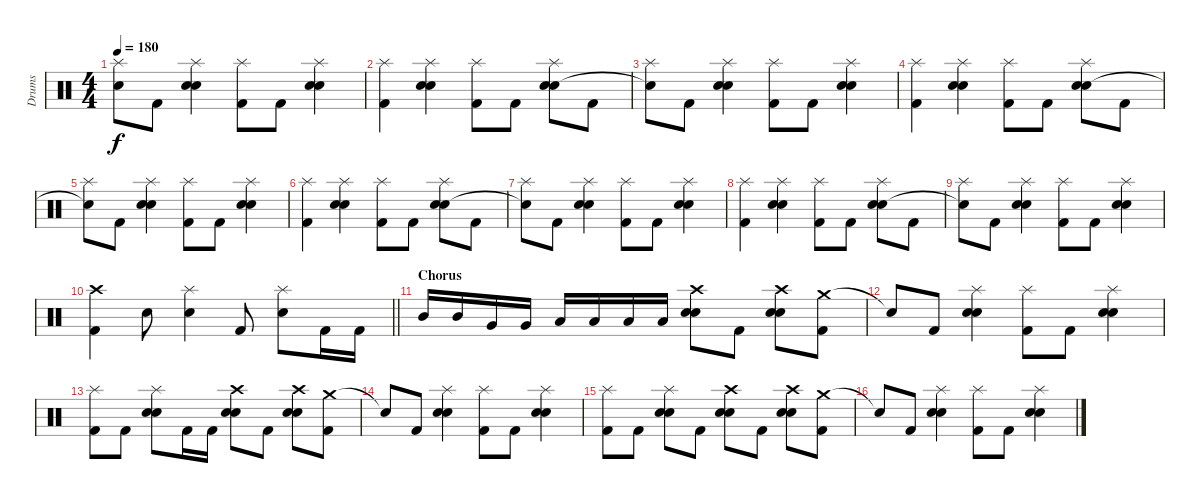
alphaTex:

\track ("Drums" "Drums") {instrument percussion}
\staff {score}
\articulation defaults
\ts (4 4)
\tempo 180
\clef neutral
\ks c
("Splash (hit)" "Snare (hit)"{t}).8{dy f} "Kick (hit) 2".8 ("Splash (hit)" "Electric Snare (hit)" "Snare (hit) 2").4 ("Splash (hit)" "Kick (hit) 2").8 "Kick (hit) 2".8 ("Splash (hit)" "Electric Snare (hit)" "Snare (hit) 2").4 |
("Splash (hit)" "Kick (hit) 2").4 ("Splash (hit)" "Electric Snare (hit)" "Snare (hit) 2").4 ("Splash (hit)" "Kick (hit) 2").8 "Kick (hit) 2".8 ("Splash (hit)" "Electric Snare (hit)" "Snare (hit) 2").8 "Kick (hit) 2".8 |
("Splash (hit)" "Snare (hit)"{t}).8 "Kick (hit) 2".8 ("Splash (hit)" "Electric Snare (hit)" "Snare (hit) 2").4 ("Splash (hit)" "Kick (hit) 2").8 "Kick (hit) 2".8 ("Splash (hit)" "Electric Snare (hit)" "Snare (hit) 2").4 |
("Splash (hit)" "Kick (hit) 2").4 ("Splash (hit)" "Electric Snare (hit)" "Snare (hit) 2").4 ("Splash (hit)" "Kick (hit) 2").8 "Kick (hit) 2".8 ("Splash (hit)" "Electric Snare (hit)" "Snare (hit) 2").8 "Kick (hit) 2".8 |
("Splash (hit)" "Snare (hit)"{t}).8 "Kick (hit) 2".8 ("Splash (hit)" "Electric Snare (hit)" "Snare (hit) 2").4 ("Splash (hit)" "Kick (hit) 2").8 "Kick (hit) 2".8 ("Splash (hit)" "Electric Snare (hit)" "Snare (hit) 2").4 |
("Splash (hit)" "Kick (hit) 2").4 ("Splash (hit)" "Electric Snare (hit)" "Snare (hit) 2").4 ("Splash (hit)" "Kick (hit) 2").8 "Kick (hit) 2".8 ("Splash (hit)" "Electric Snare (hit)" "Snare (hit) 2").8 "Kick (hit) 2".8 |
("Splash (hit)" "Snare (hit)"{t}).8 "Kick (hit) 2".8 ("Splash (hit)" "Electric Snare (hit)" "Snare (hit) 2").4 ("Splash (hit)" "Kick (hit) 2").8 "Kick (hit) 2".8 ("Splash (hit)" "Electric Snare (hit)" "Snare (hit) 2").4 |
("Splash (hit)" "Kick (hit) 2").4 ("Splash (hit)" "Electric Snare (hit)" "Snare (hit) 2").4 ("Splash (hit)" "Kick (hit) 2").8 "Kick (hit) 2".8 ("Splash (hit)" "Electric Snare (hit)" "Snare (hit) 2").8 "Kick (hit) 2".8 |
("Splash (hit)" "Snare (hit)"{t}).8 "Kick (hit) 2".8 ("Splash (hit)" "Electric Snare (hit)" "Snare (hit) 2").4 ("Splash (hit)" "Kick (hit) 2").8 "Kick (hit) 2".8 ("Splash (hit)" "Electric Snare (hit)" "Snare (hit) 2").4 |
\barLineRight lightlight
("Crash high (hit)" "Kick (hit) 2").4 "Electric Snare (hit)".8 ("Splash (hit)" "Electric Snare (hit)").4 "Kick (hit) 2".8 ("Splash (hit)" "Electric Snare (hit)").8 "Kick (hit) 2".16 "Kick (hit) 2".16 |
\section ("" "Chorus")
"Mid Tom (hit)".16 "Mid Tom (hit)".16 "Very Low Tom (hit)".16 "Very Low Tom (hit)".16 "Low Tom (hit)".16 "Low Tom (hit)".16 "Low Floor Tom (hit)".16 "Low Floor Tom (hit)".16 ("Crash high (hit)" "Electric Snare (hit)" "Snare (hit) 2").8 "Kick (hit) 2".8 ("Crash high (hit)" "Electric Snare (hit)" "Snare (hit) 2").8 ("Crash medium (hit)" "Kick (hit) 2").8 |
"Snare (hit)"{t}.8 "Kick (hit) 2".8 ("Splash (hit)" "Electric Snare (hit)" "Snare (hit) 2").4 ("Splash (hit)" "Kick (hit) 2").8 "Kick (hit) 2".8 ("Splash (hit)" "Electric Snare (hit)" "Snare (hit) 2").4 |
("Splash (hit)" "Kick (hit) 2").8 "Kick (hit) 2".8 ("Splash (hit)" "Electric Snare (hit)" "Snare (hit) 2").8 "Kick (hit) 2".16 "Kick (hit) 2".16 ("Crash high (hit)" "Electric Snare (hit)" "Snare (hit) 2").8 "Kick (hit) 2".8 ("Crash high (hit)" "Electric Snare (hit)" "Snare (hit) 2").8 ("Crash medium (hit)" "Kick (hit) 2").8 |
"Snare (hit)"{t}.8 "Kick (hit) 2".8 ("Splash (hit)" "Electric Snare (hit)" "Snare (hit) 2").4 ("Splash (hit)" "Kick (hit) 2").8 "Kick (hit) 2".8 ("Splash (hit)" "Electric Snare (hit)" "Snare (hit) 2").4 |
("Splash (hit)" "Kick (hit) 2").8 "Kick (hit) 2".8 ("Splash (hit)" "Electric Snare (hit)" "Snare (hit) 2").8 "Kick (hit) 2".8 ("Crash high (hit)" "Electric Snare (hit)" "Snare (hit) 2").8 "Kick (hit) 2".8 ("Crash high (hit)" "Electric Snare (hit)" "Snare (hit) 2").8 ("Crash medium (hit)" "Kick (hit) 2").8 |
"Snare (hit)"{t}.8 "Kick (hit) 2".8 ("Splash (hit)" "Electric Snare (hit)" "Snare (hit) 2").4 ("Splash (hit)" "Kick (hit) 2").8 "Kick (hit) 2".8 ("Splash (hit)" "Electric Snare (hit)" "Snare (hit) 2").4
